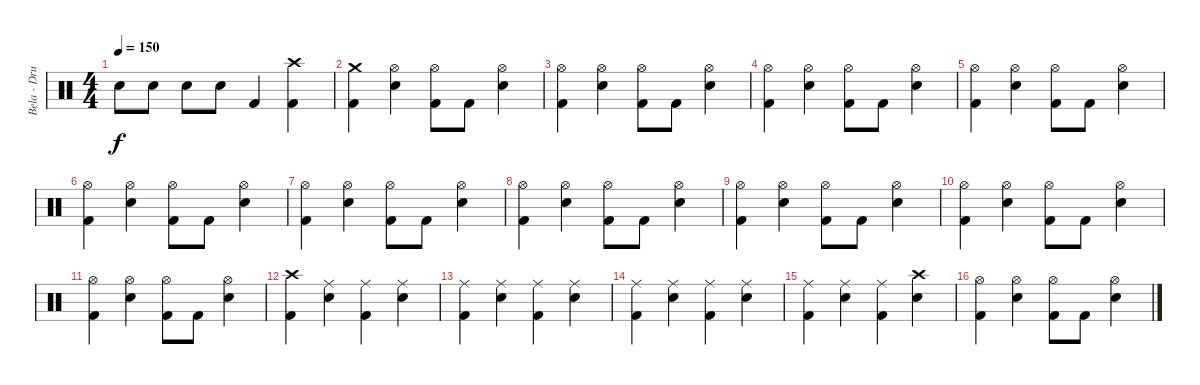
\track ("Bela - Drums" "Bela - Dru") {instrument percussion}
\staff {score}
\articulation defaults
\ts (4 4)
\tempo 150
\clef neutral
\ks c "Snare (hit) 2".8{dy f} "Snare (hit) 2".8 "Snare (hit) 2".8 "Snare (hit) 2".8 "Kick (hit) 2".4
("Crash high (hit)" "Kick (hit) 2").4 |
("Crash medium (hit)" "Kick (hit) 2").4 ("Hi-Hat (open)" "Snare (hit) 2").4 ("Hi-Hat (open)" "Kick (hit) 2").8 "Kick (hit) 2".8 ("Hi-Hat (open)" "Snare (hit) 2").4 |
("Hi-Hat (open)" "Kick (hit) 2").4 ("Hi-Hat (open)" "Snare (hit) 2").4 ("Hi-Hat (open)" "Kick (hit) 2").8 "Kick (hit) 2".8 ("Hi-Hat (open)" "Snare (hit) 2").4 |
("Hi-Hat (open)" "Kick (hit) 2").4 ("Hi-Hat (open)" "Snare (hit) 2").4 ("Hi-Hat (open)" "Kick (hit) 2").8 "Kick (hit) 2".8 ("Hi-Hat (open)" "Snare (hit) 2").4 |
("Hi-Hat (open)" "Kick (hit) 2").4 ("Hi-Hat (open)" "Snare (hit) 2").4 ("Hi-Hat (open)" "Kick (hit) 2").8 "Kick (hit) 2".8 ("Hi-Hat (open)" "Snare (hit) 2").4 |
("Hi-Hat (open)" "Kick (hit) 2").4 ("Hi-Hat (open)" "Snare (hit) 2").4 ("Hi-Hat (open)" "Kick (hit) 2").8 "Kick (hit) 2".8 ("Hi-Hat (open)" "Snare (hit) 2").4 |
("Hi-Hat (open)" "Kick (hit) 2").4 ("Hi-Hat (open)" "Snare (hit) 2").4 ("Hi-Hat (open)" "Kick (hit) 2").8 "Kick (hit) 2".8 ("Hi-Hat (open)" "Snare (hit) 2").4 |
("Hi-Hat (open)" "Kick (hit) 2").4 ("Hi-Hat (open)" "Snare (hit) 2").4 ("Hi-Hat (open)" "Kick (hit) 2").8 "Kick (hit) 2".8 ("Hi-Hat (open)" "Snare (hit) 2").4 |
("Hi-Hat (open)" "Kick (hit) 2").4 ("Hi-Hat (open)" "Snare (hit) 2").4 ("Hi-Hat (open)" "Kick (hit) 2").8 "Kick (hit) 2".8 ("Hi-Hat (open)" "Snare (hit) 2").4 |
("Hi-Hat (open)" "Kick (hit) 2").4 ("Hi-Hat (open)" "Snare (hit) 2").4 ("Hi-Hat (open)" "Kick (hit) 2").8 "Kick (hit) 2".8 ("Hi-Hat (open)" "Snare (hit) 2").4 |
("Hi-Hat (open)" "Kick (hit) 2").4 ("Hi-Hat (open)" "Snare (hit) 2").4 ("Hi-Hat (open)" "Kick (hit) 2").8 "Kick (hit) 2".8 ("Hi-Hat (open)" "Snare (hit) 2").4 |
("Crash high (hit)" "Kick (hit) 2").4 ("Ride (middle)" "Snare (hit) 2").4 ("Ride (middle)" "Kick (hit) 2").4 ("Ride (middle)" "Snare (hit) 2").4 |
("Ride (middle)" "Kick (hit) 2").4 ("Ride (middle)" "Snare (hit) 2").4 ("Ride (middle)" "Kick (hit) 2").4 ("Ride (middle)" "Snare (hit) 2").4 |
("Ride (middle)" "Kick (hit) 2").4 ("Ride (middle)" "Snare (hit) 2").4 ("Ride (middle)" "Kick (hit) 2").4 ("Ride (middle)" "Snare (hit) 2").4 |
("Ride (middle)" "Kick (hit) 2").4 ("Ride (middle)" "Snare (hit) 2").4 ("Ride (middle)" "Kick (hit) 2").4 ("Crash high (hit)" "Snare (hit) 2").4 |
("Hi-Hat (open)" "Kick (hit) 2").4 ("Hi-Hat (open)" "Snare (hit) 2").4 ("Hi-Hat (open)" "Kick (hit) 2").8 "Kick (hit) 2".8 ("Hi-Hat (open)" "Snare (hit) 2").4
